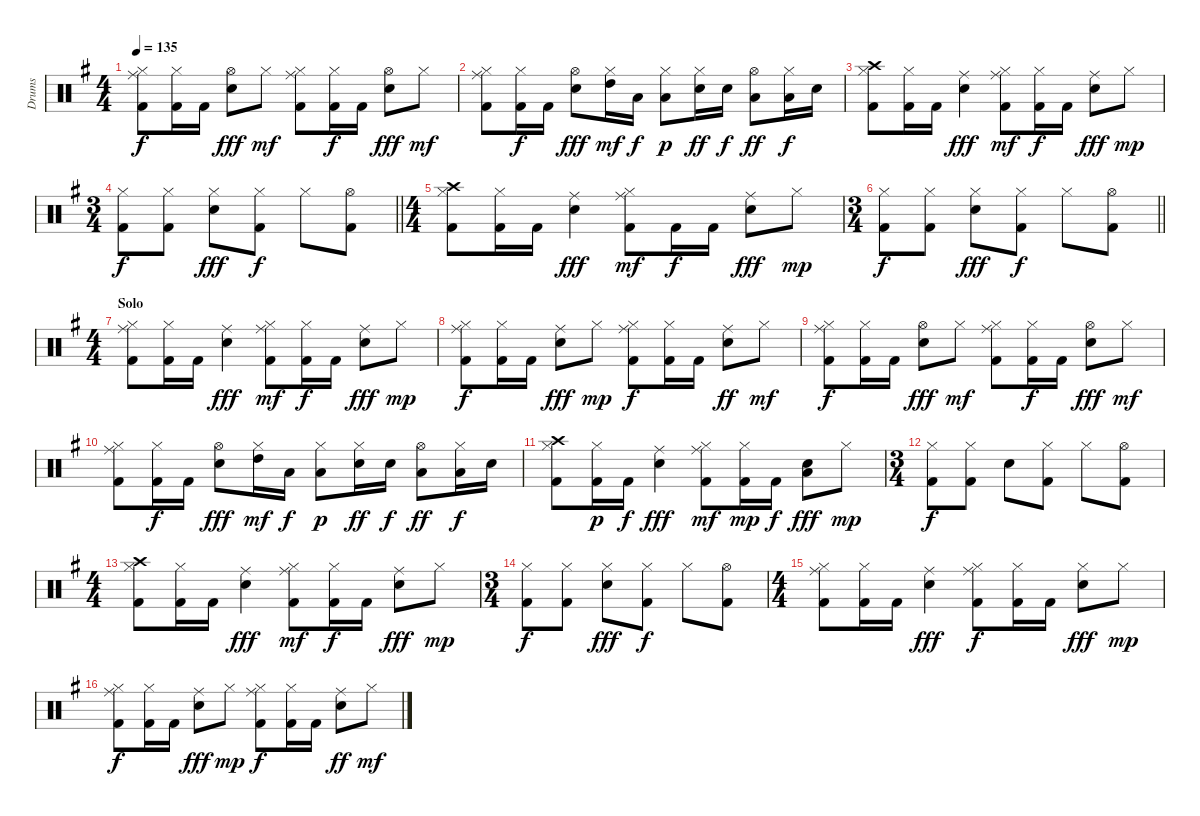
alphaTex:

\track ("Drums" "Drums") {instrument percussion}
\staff {score}
\articulation defaults
\ts (4 4)
\tempo 135
\clef neutral
\ks g
("Hi-Hat (closed)" "Ride (middle)" "Kick (hit) 2").8{dy f} ("Hi-Hat (closed)" "Kick (hit) 2").16 "Kick (hit) 2".16 ("Hi-Hat (open)" "Electric Snare (hit)").8{dy fff} "Hi-Hat (closed)".8{dy mf} ("Hi-Hat (closed)" "Ride (middle)" "Kick (hit) 2").8 ("Hi-Hat (closed)" "Kick (hit) 2").16{dy f} "Kick (hit) 2".16 ("Hi-Hat (open)" "Electric Snare (hit)").8{dy fff} "Hi-Hat (closed)".8{dy mf} |
("Hi-Hat (closed)" "Ride (middle)" "Kick (hit) 2").8 ("Hi-Hat (closed)" "Kick (hit) 2").16{dy f} "Kick (hit) 2".16 ("Hi-Hat (open)" "Electric Snare (hit)").8{dy fff} ("Hi-Hat (closed)" "High Tom (hit)").16{dy mf} "Low Tom (hit)".16{dy f} ("Hi-Hat (closed)" "Low Floor Tom (hit)").8{dy p} ("Hi-Hat (closed)" "Electric Snare (hit)").16{dy ff} "Electric Snare (hit)".16{dy f} ("Hi-Hat (open)" "Low Tom (hit)").8{dy ff} ("Hi-Hat (closed)" "Low Tom (hit)").16{dy f} "Electric Snare (hit)".16 |
("Hi-Hat (closed)" "Crash high (hit)" "Kick (hit) 2").8 ("Hi-Hat (closed)" "Kick (hit) 2").16 "Kick (hit) 2".16 ("Ride (middle)" "Electric Snare (hit)").4{dy fff} ("Hi-Hat (closed)" "Ride (middle)" "Kick (hit) 2").8{dy mf} ("Hi-Hat (closed)" "Kick (hit) 2").16{dy f} "Kick (hit) 2".16 ("Ride (middle)" "Electric Snare (hit)").8{dy fff} "Hi-Hat (closed)".8{dy mp} |
\ts (3 4)
\barLineRight lightlight
("Hi-Hat (closed)" "Kick (hit) 2").8{dy f} ("Hi-Hat (closed)" "Kick (hit) 2").8 ("Hi-Hat (closed)" "Electric Snare (hit)").8{dy fff} ("Hi-Hat (closed)" "Kick (hit) 2").8{dy f} "Hi-Hat (closed)".8 ("Hi-Hat (open)" "Kick (hit) 2").8 |
\ts (4 4)
("Hi-Hat (closed)" "Crash high (hit)" "Kick (hit) 2").8 ("Hi-Hat (closed)" "Kick (hit) 2").16 "Kick (hit) 2".16 ("Ride (middle)" "Electric Snare (hit)").4{dy fff} ("Hi-Hat (closed)" "Ride (middle)" "Kick (hit) 2").8{dy mf} "Kick (hit) 2".16{dy f} "Kick (hit) 2".16 ("Ride (middle)" "Electric Snare (hit)").8{dy fff} "Hi-Hat (closed)".8{dy mp} |
\ts (3 4)
\barLineRight lightlight
("Hi-Hat (closed)" "Kick (hit) 2").8{dy f} ("Hi-Hat (closed)" "Kick (hit) 2").8 ("Hi-Hat (closed)" "Electric Snare (hit)").8{dy fff} ("Hi-Hat (closed)" "Kick (hit) 2").8{dy f} "Hi-Hat (closed)".8 ("Hi-Hat (open)" "Kick (hit) 2").8 |
\ts (4 4)
\section ("" "Solo")
("Hi-Hat (closed)" "Ride (middle)" "Kick (hit) 2").8 ("Hi-Hat (closed)" "Kick (hit) 2").16 "Kick (hit) 2".16 ("Ride (middle)" "Electric Snare (hit)").4{dy fff} ("Hi-Hat (closed)" "Ride (middle)" "Kick (hit) 2").8{dy mf} ("Hi-Hat (closed)" "Kick (hit) 2").16{dy f} "Kick (hit) 2".16 ("Ride (middle)" "Electric Snare (hit)").8{dy fff} "Hi-Hat (closed)".8{dy mp} |
("Hi-Hat (closed)" "Ride (middle)" "Kick (hit) 2").8{dy f} ("Hi-Hat (closed)" "Kick (hit) 2").16 "Kick (hit) 2".16 ("Ride (middle)" "Electric Snare (hit)").8{dy fff} "Hi-Hat (closed)".8{dy mp} ("Hi-Hat (closed)" "Ride (middle)" "Kick (hit) 2").8{dy f} ("Hi-Hat (closed)" "Kick (hit) 2").16 "Kick (hit) 2".16 ("Ride (middle)" "Electric Snare (hit)").8{dy ff} "Hi-Hat (closed)".8{dy mf} |
("Hi-Hat (closed)" "Ride (middle)" "Kick (hit) 2").8{dy f} ("Hi-Hat (closed)" "Kick (hit) 2").16 "Kick (hit) 2".16 ("Hi-Hat (open)" "Electric Snare (hit)").8{dy fff} "Hi-Hat (closed)".8{dy mf} ("Hi-Hat (closed)" "Ride (middle)" "Kick (hit) 2").8 ("Hi-Hat (closed)" "Kick (hit) 2").16{dy f} "Kick (hit) 2".16 ("Hi-Hat (open)" "Electric Snare (hit)").8{dy fff} "Hi-Hat (closed)".8{dy mf} |
("Hi-Hat (closed)" "Ride (middle)" "Kick (hit) 2").8 ("Hi-Hat (closed)" "Kick (hit) 2").16{dy f} "Kick (hit) 2".16 ("Hi-Hat (open)" "Electric Snare (hit)").8{dy fff} ("Hi-Hat (closed)" "High Tom (hit)").16{dy mf} "Low Tom (hit)".16{dy f} ("Hi-Hat (closed)" "Low Floor Tom (hit)").8{dy p} ("Hi-Hat (closed)" "Electric Snare (hit)").16{dy ff} "Electric Snare (hit)".16{dy f} ("Hi-Hat (open)" "Low Tom (hit)").8{dy ff} ("Hi-Hat (closed)" "Low Tom (hit)").16{dy f} "Electric Snare (hit)".16 |
("Hi-Hat (closed)" "Crash high (hit)" "Kick (hit) 2").8 ("Hi-Hat (closed)" "Kick (hit) 2").16{dy p} "Kick (hit) 2".16{dy f} ("Ride (middle)" "Electric Snare (hit)").4{dy fff} ("Hi-Hat (closed)" "Ride (middle)" "Kick (hit) 2").8{dy mf} ("Hi-Hat (closed)" "Kick (hit) 2").16{dy mp} "Kick (hit) 2".16{dy f} ("Low Floor Tom (hit)" "Electric Snare (hit)").8{dy fff} "Hi-Hat (closed)".8{dy mp} |
\ts (3 4)
("Hi-Hat (closed)" "Kick (hit) 2").8{dy f} ("Hi-Hat (closed)" "Kick (hit) 2").8 "Electric Snare (hit)".8 ("Hi-Hat (closed)" "Kick (hit) 2").8 "Hi-Hat (closed)".8 ("Hi-Hat (open)" "Kick (hit) 2").8 |
\ts (4 4)
("Hi-Hat (closed)" "Crash high (hit)" "Kick (hit) 2").8 ("Hi-Hat (closed)" "Kick (hit) 2").16 "Kick (hit) 2".16 ("Ride (middle)" "Electric Snare (hit)").4{dy fff} ("Hi-Hat (closed)" "Ride (middle)" "Kick (hit) 2").8{dy mf} ("Hi-Hat (closed)" "Kick (hit) 2").16{dy f} "Kick (hit) 2".16 ("Ride (middle)" "Electric Snare (hit)").8{dy fff} "Hi-Hat (closed)".8{dy mp} |
\ts (3 4)
("Hi-Hat (closed)" "Kick (hit) 2").8{dy f} ("Hi-Hat (closed)" "Kick (hit) 2").8 ("Hi-Hat (closed)" "Electric Snare (hit)").8{dy fff} ("Hi-Hat (closed)" "Kick (hit) 2").8{dy f} "Hi-Hat (closed)".8 ("Hi-Hat (open)" "Kick (hit) 2").8 |
\ts (4 4)
("Hi-Hat (closed)" "Ride (middle)" "Kick (hit) 2").8 ("Hi-Hat (closed)" "Kick (hit) 2").16 "Kick (hit) 2".16 ("Ride (middle)" "Electric Snare (hit)").4{dy fff} ("Hi-Hat (closed)" "Ride (middle)" "Kick (hit) 2").8{dy f} ("Hi-Hat (closed)" "Kick (hit) 2").16 "Kick (hit) 2".16 ("Hi-Hat (closed)" "Electric Snare (hit)").8{dy fff} "Hi-Hat (closed)".8{dy mp} |
("Hi-Hat (closed)" "Ride (middle)" "Kick (hit) 2").8{dy f} ("Hi-Hat (closed)" "Kick (hit) 2").16 "Kick (hit) 2".16 ("Ride (middle)" "Electric Snare (hit)").8{dy fff} "Hi-Hat (closed)".8{dy mp} ("Hi-Hat (closed)" "Ride (middle)" "Kick (hit) 2").8{dy f} ("Hi-Hat (closed)" "Kick (hit) 2").16 "Kick (hit) 2".16 ("Ride (middle)" "Electric Snare (hit)").8{dy ff} "Hi-Hat (closed)".8{dy mf}
